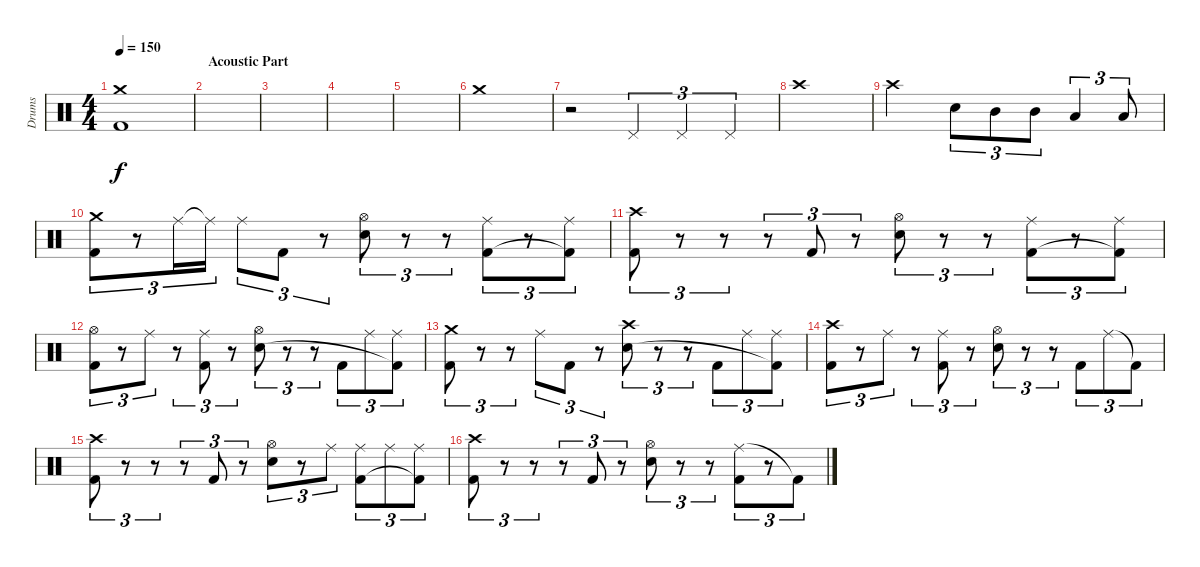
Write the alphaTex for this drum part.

\track ("Drums" "Drums") {instrument percussion}
\staff {score}
\articulation defaults
\ts (4 4)
\tempo 150
\clef neutral
\ks c
("Crash medium (hit)" "Kick (hit) 2").1{dy f} |
\section ("" "Acoustic Part")
|
|
|
|
"Crash medium (hit)".1 |
r.2 "Pedal Hi-Hat (hit)".4{tu (3 2)} "Pedal Hi-Hat (hit)".4{tu (3 2)} "Pedal Hi-Hat (hit)".4{tu (3 2)} |
"Crash high (hit)".1 |
"Crash high (hit)".2 "Electric Snare (hit)".8{tu (3 2)} "Mid Tom (hit)".8{tu (3 2)} "Mid Tom (hit)".8{tu (3 2)} "Low Tom (hit)".4{tu (3 2)} "Low Tom (hit)".8{tu (3 2)} |
("Crash medium (hit)" "Kick (hit) 2").8{tu (3 2)} r.8{tu (3 2)} "Ride (middle)".16{tu (3 2)} "Ride (middle)"{t}.16{tu (3 2)} "Ride (middle)".8{tu (3 2)} "Kick (hit) 2".8{tu (3 2)} r.8{tu (3 2)} ("Hi-Hat (open)" "Electric Snare (hit)").8{tu (3 2)} r.8{tu (3 2)} r.8{tu (3 2)} ("Ride (middle)" "Kick (hit) 2").8{tu (3 2)} r.8{tu (3 2)} ("Ride (middle)" "Kick (hit) 2"{t}).8{tu (3 2)} |
("Crash high (hit)" "Kick (hit) 2").8{tu (3 2)} r.8{tu (3 2)} r.8{tu (3 2)} r.8{tu (3 2)} "Kick (hit) 2".8{tu (3 2)} r.8{tu (3 2)} ("Hi-Hat (open)" "Electric Snare (hit)").8{tu (3 2)} r.8{tu (3 2)} r.8{tu (3 2)} ("Ride (middle)" "Kick (hit) 2").8{tu (3 2)} r.8{tu (3 2)} ("Ride (middle)" "Kick (hit) 2"{t}).8{tu (3 2)} |
("Hi-Hat (open)" "Kick (hit) 2").8{tu (3 2)} r.8{tu (3 2)} "Ride (middle)".8{tu (3 2)} r.8{tu (3 2)} ("Ride (middle)" "Kick (hit) 2").8{tu (3 2)} r.8{tu (3 2)} ("Hi-Hat (open)" "Electric Snare (hit)").8{tu (3 2)} r.8{tu (3 2)} r.8{tu (3 2)} "Kick (hit) 2".8{tu (3 2)} "Ride (middle)".8{tu (3 2)} ("Ride (middle)" "Kick (hit) 2"{t}).8{tu (3 2)} |
("Crash medium (hit)" "Kick (hit) 2").8{tu (3 2)} r.8{tu (3 2)} r.8{tu (3 2)} "Ride (middle)".8{tu (3 2)} "Kick (hit) 2".8{tu (3 2)} r.8{tu (3 2)} ("Crash high (hit)" "Electric Snare (hit)").8{tu (3 2)} r.8{tu (3 2)} r.8{tu (3 2)} "Kick (hit) 2".8{tu (3 2)} "Ride (middle)".8{tu (3 2)} ("Ride (middle)" "Kick (hit) 2"{t}).8{tu (3 2)} |
("Crash high (hit)" "Kick (hit) 2").8{tu (3 2)} r.8{tu (3 2)} "Ride (middle)".8{tu (3 2)} r.8{tu (3 2)} ("Ride (middle)" "Kick (hit) 2").8{tu (3 2)} r.8{tu (3 2)} ("Hi-Hat (open)" "Electric Snare (hit)").8{tu (3 2)} r.8{tu (3 2)} r.8{tu (3 2)} "Kick (hit) 2".8{tu (3 2)} "Ride (middle)".8{tu (3 2)} "Kick (hit) 2"{t}.8{tu (3 2)} |
("Crash high (hit)" "Kick (hit) 2").8{tu (3 2)} r.8{tu (3 2)} r.8{tu (3 2)} r.8{tu (3 2)} "Kick (hit) 2".8{tu (3 2)} r.8{tu (3 2)} ("Hi-Hat (open)" "Electric Snare (hit)").8{tu (3 2)} r.8{tu (3 2)} "Ride (middle)".8{tu (3 2)} ("Ride (middle)" "Kick (hit) 2").8{tu (3 2)} "Ride (middle)".8{tu (3 2)} ("Ride (middle)" "Kick (hit) 2"{t}).8{tu (3 2)} |
("Crash high (hit)" "Kick (hit) 2").8{tu (3 2)} r.8{tu (3 2)} r.8{tu (3 2)} r.8{tu (3 2)} "Kick (hit) 2".8{tu (3 2)} r.8{tu (3 2)} ("Hi-Hat (open)" "Electric Snare (hit)").8{tu (3 2)} r.8{tu (3 2)} r.8{tu (3 2)} ("Ride (middle)" "Kick (hit) 2").8{tu (3 2)} r.8{tu (3 2)} "Kick (hit) 2"{t}.8{tu (3 2)}
